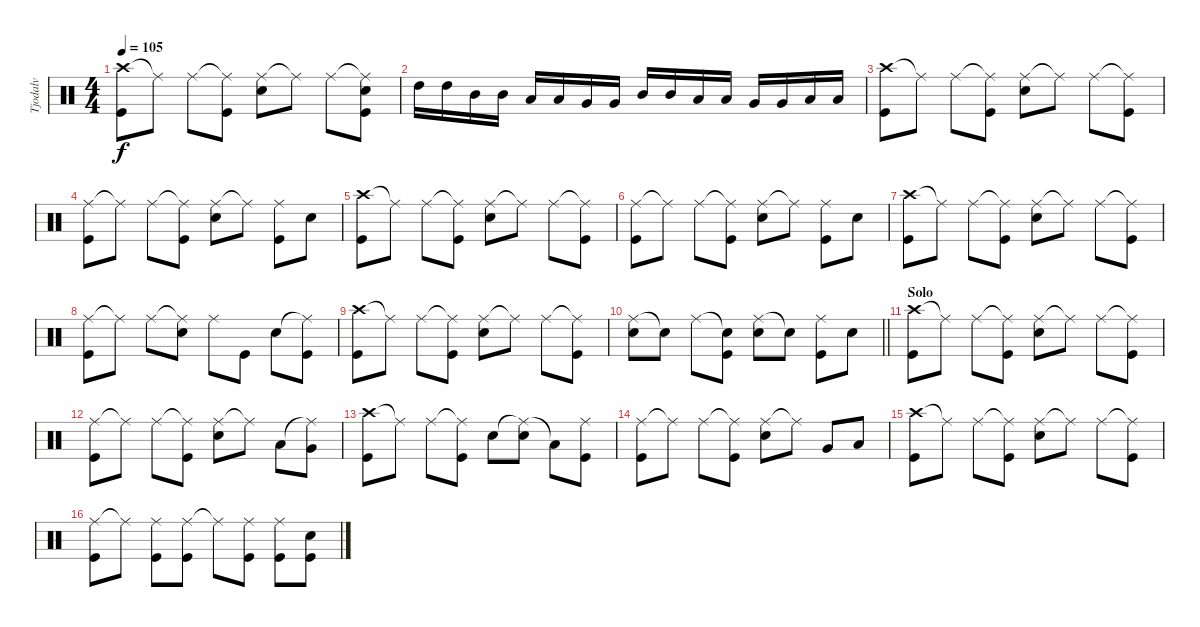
\track ("Tjodalv" "Tjodalv") {instrument percussion}
\staff {score}
\articulation defaults
\ts (4 4)
\tempo 105
\clef neutral
\ks c
("Crash high (hit)" "Kick (hit)").8{dy f} "Ride (middle)"{t}.8 "Ride (middle)".8 ("Ride (middle)"{t} "Kick (hit)").8 ("Ride (middle)" "Snare (hit) 2").8 "Ride (middle)"{t}.8 "Ride (middle)".8 ("Ride (middle)"{t} "Snare (hit) 2" "Kick (hit)").8 |
"High Tom (hit)".16 "High Tom (hit)".16 "Mid Tom (hit)".16 "Mid Tom (hit)".16 "Low Tom (hit)".16 "Low Tom (hit)".16 "Very Low Tom (hit)".16 "Very Low Tom (hit)".16 "Mid Tom (hit)".16 "Mid Tom (hit)".16 "Low Tom (hit)".16 "Low Tom (hit)".16 "Very Low Tom (hit)".16 "Very Low Tom (hit)".16 "Low Floor Tom (hit)".16 "Low Floor Tom (hit)".16 |
("Crash high (hit)" "Kick (hit)").8 "Ride (middle)"{t}.8 "Ride (middle)".8 ("Ride (middle)"{t} "Kick (hit)").8 ("Ride (middle)" "Snare (hit) 2").8 "Ride (middle)"{t}.8 "Ride (middle)".8 ("Ride (middle)"{t} "Kick (hit)").8 |
("Ride (middle)" "Kick (hit)").8 "Ride (middle)"{t}.8 "Ride (middle)".8 ("Ride (middle)"{t} "Kick (hit)").8 ("Ride (middle)" "Snare (hit) 2").8 "Ride (middle)"{t}.8 ("Ride (middle)" "Kick (hit)").8 "Snare (hit) 2".8 |
("Crash high (hit)" "Kick (hit)").8 "Ride (middle)"{t}.8 "Ride (middle)".8 ("Ride (middle)"{t} "Kick (hit)").8 ("Ride (middle)" "Snare (hit) 2").8 "Ride (middle)"{t}.8 "Ride (middle)".8 ("Ride (middle)"{t} "Kick (hit)").8 |
("Ride (middle)" "Kick (hit)").8 "Ride (middle)"{t}.8 "Ride (middle)".8 ("Ride (middle)"{t} "Kick (hit)").8 ("Ride (middle)" "Snare (hit) 2").8 "Ride (middle)"{t}.8 ("Ride (middle)" "Kick (hit)").8 "Snare (hit) 2".8 |
("Crash high (hit)" "Kick (hit)").8 "Ride (middle)"{t}.8 "Ride (middle)".8 ("Ride (middle)"{t} "Kick (hit)").8 ("Ride (middle)" "Snare (hit) 2").8 "Ride (middle)"{t}.8 "Ride (middle)".8 ("Ride (middle)"{t} "Kick (hit)").8 |
("Ride (middle)" "Kick (hit)").8 "Ride (middle)"{t}.8 "Ride (middle)".8 ("Ride (middle)"{t} "Snare (hit) 2").8 "Ride (middle)".8 "Kick (hit)".8 "Snare (hit) 2".8 ("Ride (middle)"{t} "Kick (hit)").8 |
("Crash high (hit)" "Kick (hit)").8 "Ride (middle)"{t}.8 "Ride (middle)".8 ("Ride (middle)"{t} "Kick (hit)").8 ("Ride (middle)" "Snare (hit) 2").8 "Ride (middle)"{t}.8 "Ride (middle)".8 ("Ride (middle)"{t} "Kick (hit)").8 |
\barLineRight lightlight
("Ride (middle)" "Snare (hit) 2").8 "Snare (hit)"{t}.8 "Ride (middle)".8 ("Snare (hit)"{t} "Kick (hit)").8 ("Ride (middle)" "Snare (hit) 2").8 "Snare (hit)"{t}.8 ("Ride (middle)" "Kick (hit)").8 "Snare (hit) 2".8 |
\section ("" "Solo")
("Crash high (hit)" "Kick (hit)").8 "Ride (middle)"{t}.8 "Ride (middle)".8 ("Ride (middle)"{t} "Kick (hit)").8 ("Ride (middle)" "Snare (hit) 2").8 "Ride (middle)"{t}.8 "Ride (middle)".8 ("Ride (middle)"{t} "Kick (hit)").8 |
("Ride (middle)" "Kick (hit)").8 "Ride (middle)"{t}.8 "Ride (middle)".8 ("Ride (middle)"{t} "Kick (hit)").8 ("Ride (middle)" "Snare (hit) 2").8 "Ride (middle)"{t}.8 "Low Tom (hit)".8 ("Ride (middle)"{t} "Very Low Tom (hit)").8 |
("Crash high (hit)" "Kick (hit)").8 "Ride (middle)"{t}.8 "Ride (middle)".8 ("Ride (middle)"{t} "Kick (hit)").8 "Snare (hit) 2".8 ("Ride (middle)"{t} "Snare (hit) 2").8 "Low Tom (hit)"{t}.8 ("Ride (middle)" "Kick (hit)").8 |
("Ride (middle)" "Kick (hit)").8 "Ride (middle)"{t}.8 "Ride (middle)".8 ("Ride (middle)"{t} "Kick (hit)").8 ("Ride (middle)" "Snare (hit) 2").8 "Ride (middle)"{t}.8 "Very Low Tom (hit)".8 "Low Floor Tom (hit)".8 |
("Crash high (hit)" "Kick (hit)").8 "Ride (middle)"{t}.8 "Ride (middle)".8 ("Ride (middle)"{t} "Kick (hit)").8 ("Ride (middle)" "Snare (hit) 2").8 "Ride (middle)"{t}.8 "Ride (middle)".8 ("Ride (middle)"{t} "Kick (hit)").8 |
("Ride (middle)" "Kick (hit)").8 "Ride (middle)"{t}.8 ("Ride (middle)" "Kick (hit)").8 ("Ride (middle)" "Kick (hit)").8 "Ride (middle)"{t}.8 ("Ride (middle)" "Kick (hit)").8 ("Ride (middle)" "Kick (hit)").8 ("Snare (hit) 2" "Kick (hit)").8
